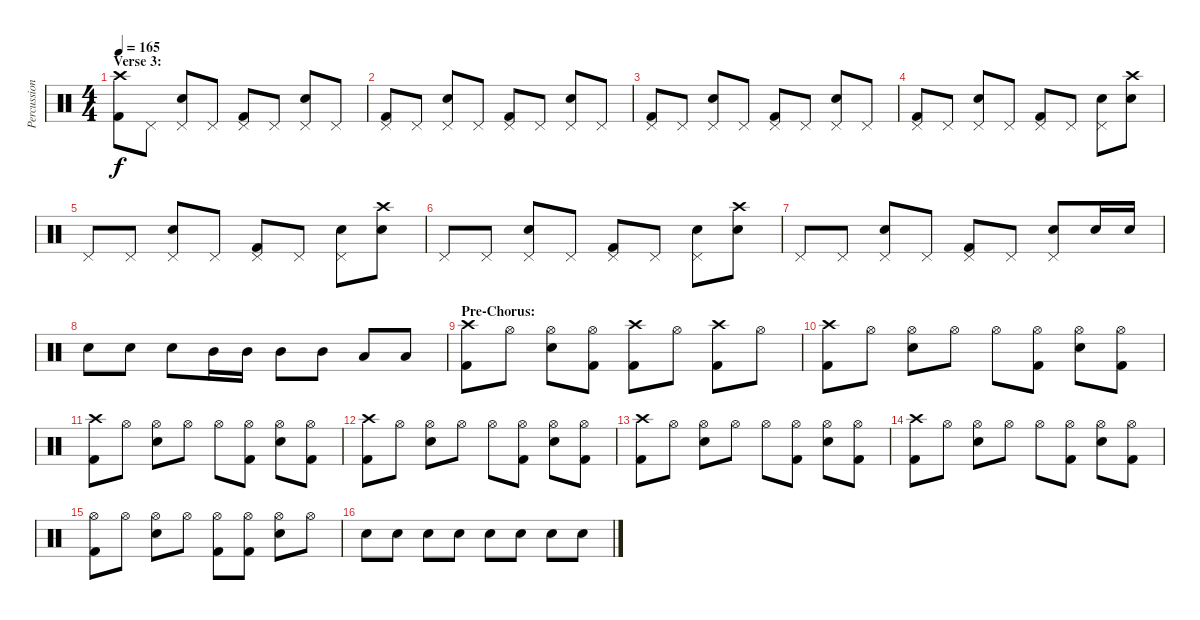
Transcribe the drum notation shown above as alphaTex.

\track ("Percussion" "Percussion") {instrument percussion}
\staff {score}
\articulation defaults
\ts (4 4)
\section ("" "Verse 3:")
\tempo 165
\clef neutral
\ks c
("Crash high (hit)" "Kick (hit) 2").8{dy f} "Pedal Hi-Hat (hit)".8 ("Pedal Hi-Hat (hit)" "Snare (hit) 2").8 "Pedal Hi-Hat (hit)".8 ("Pedal Hi-Hat (hit)" "Kick (hit) 2").8 "Pedal Hi-Hat (hit)".8 ("Pedal Hi-Hat (hit)" "Snare (hit) 2").8 "Pedal Hi-Hat (hit)".8 |
("Pedal Hi-Hat (hit)" "Kick (hit) 2").8 "Pedal Hi-Hat (hit)".8 ("Pedal Hi-Hat (hit)" "Snare (hit) 2").8 "Pedal Hi-Hat (hit)".8 ("Pedal Hi-Hat (hit)" "Kick (hit) 2").8 "Pedal Hi-Hat (hit)".8 ("Pedal Hi-Hat (hit)" "Snare (hit) 2").8 "Pedal Hi-Hat (hit)".8 |
("Pedal Hi-Hat (hit)" "Kick (hit) 2").8 "Pedal Hi-Hat (hit)".8 ("Pedal Hi-Hat (hit)" "Snare (hit) 2").8 "Pedal Hi-Hat (hit)".8 ("Pedal Hi-Hat (hit)" "Kick (hit) 2").8 "Pedal Hi-Hat (hit)".8 ("Pedal Hi-Hat (hit)" "Snare (hit) 2").8 "Pedal Hi-Hat (hit)".8 |
("Pedal Hi-Hat (hit)" "Kick (hit) 2").8 "Pedal Hi-Hat (hit)".8 ("Pedal Hi-Hat (hit)" "Snare (hit) 2").8 "Pedal Hi-Hat (hit)".8 ("Pedal Hi-Hat (hit)" "Kick (hit) 2").8 "Pedal Hi-Hat (hit)".8 ("Pedal Hi-Hat (hit)" "Snare (hit) 2").8 ("Crash high (hit)" "Snare (hit) 2").8 |
"Pedal Hi-Hat (hit)".8 "Pedal Hi-Hat (hit)".8 ("Pedal Hi-Hat (hit)" "Snare (hit) 2").8 "Pedal Hi-Hat (hit)".8 ("Pedal Hi-Hat (hit)" "Kick (hit) 2").8 "Pedal Hi-Hat (hit)".8 ("Pedal Hi-Hat (hit)" "Snare (hit) 2").8 ("Crash high (hit)" "Snare (hit) 2").8 |
"Pedal Hi-Hat (hit)".8 "Pedal Hi-Hat (hit)".8 ("Pedal Hi-Hat (hit)" "Snare (hit) 2").8 "Pedal Hi-Hat (hit)".8 ("Pedal Hi-Hat (hit)" "Kick (hit) 2").8 "Pedal Hi-Hat (hit)".8 ("Pedal Hi-Hat (hit)" "Snare (hit) 2").8 ("Crash high (hit)" "Snare (hit) 2").8 |
"Pedal Hi-Hat (hit)".8 "Pedal Hi-Hat (hit)".8 ("Pedal Hi-Hat (hit)" "Snare (hit) 2").8 "Pedal Hi-Hat (hit)".8 ("Pedal Hi-Hat (hit)" "Kick (hit) 2").8 "Pedal Hi-Hat (hit)".8 ("Pedal Hi-Hat (hit)" "Snare (hit) 2").8 "Snare (hit) 2".16 "Snare (hit) 2".16 |
"Snare (hit) 2".8 "Snare (hit) 2".8 "Snare (hit) 2".8 "Mid Tom (hit)".16 "Mid Tom (hit)".16 "Mid Tom (hit)".8 "Mid Tom (hit)".8 "Low Tom (hit)".8 "Low Tom (hit)".8 |
\section ("" "Pre-Chorus:")
("Crash high (hit)" "Kick (hit) 2").8 "Hi-Hat (open)".8 ("Hi-Hat (open)" "Snare (hit) 2").8 ("Hi-Hat (open)" "Kick (hit) 2").8 ("Crash high (hit)" "Kick (hit) 2").8 "Hi-Hat (open)".8 ("Crash high (hit)" "Kick (hit) 2").8 "Hi-Hat (open)".8 |
("Crash high (hit)" "Kick (hit) 2").8 "Hi-Hat (open)".8 ("Hi-Hat (open)" "Snare (hit) 2").8 "Hi-Hat (open)".8 "Hi-Hat (open)".8 ("Hi-Hat (open)" "Kick (hit) 2").8 ("Hi-Hat (open)" "Snare (hit) 2").8 ("Hi-Hat (open)" "Kick (hit) 2").8 |
("Crash high (hit)" "Kick (hit) 2").8 "Hi-Hat (open)".8 ("Hi-Hat (open)" "Snare (hit) 2").8 "Hi-Hat (open)".8 "Hi-Hat (open)".8 ("Hi-Hat (open)" "Kick (hit) 2").8 ("Hi-Hat (open)" "Snare (hit) 2").8 ("Hi-Hat (open)" "Kick (hit) 2").8 |
("Crash high (hit)" "Kick (hit) 2").8 "Hi-Hat (open)".8 ("Hi-Hat (open)" "Snare (hit) 2").8 "Hi-Hat (open)".8 "Hi-Hat (open)".8 ("Hi-Hat (open)" "Kick (hit) 2").8 ("Hi-Hat (open)" "Snare (hit) 2").8 ("Hi-Hat (open)" "Kick (hit) 2").8 |
("Crash high (hit)" "Kick (hit) 2").8 "Hi-Hat (open)".8 ("Hi-Hat (open)" "Snare (hit) 2").8 "Hi-Hat (open)".8 "Hi-Hat (open)".8 ("Hi-Hat (open)" "Kick (hit) 2").8 ("Hi-Hat (open)" "Snare (hit) 2").8 ("Hi-Hat (open)" "Kick (hit) 2").8 |
("Crash high (hit)" "Kick (hit) 2").8 "Hi-Hat (open)".8 ("Hi-Hat (open)" "Snare (hit) 2").8 "Hi-Hat (open)".8 "Hi-Hat (open)".8 ("Hi-Hat (open)" "Kick (hit) 2").8 ("Hi-Hat (open)" "Snare (hit) 2").8 ("Hi-Hat (open)" "Kick (hit) 2").8 |
("Hi-Hat (open)" "Kick (hit) 2").8 "Hi-Hat (open)".8 ("Hi-Hat (open)" "Snare (hit) 2").8 "Hi-Hat (open)".8 ("Hi-Hat (open)" "Kick (hit) 2").8 ("Hi-Hat (open)" "Kick (hit) 2").8 ("Hi-Hat (open)" "Snare (hit) 2").8 "Hi-Hat (open)".8 |
"Snare (hit) 2".8 "Snare (hit) 2".8 "Snare (hit) 2".8 "Snare (hit) 2".8 "Snare (hit) 2".8 "Snare (hit) 2".8 "Snare (hit) 2".8 "Snare (hit) 2".8
